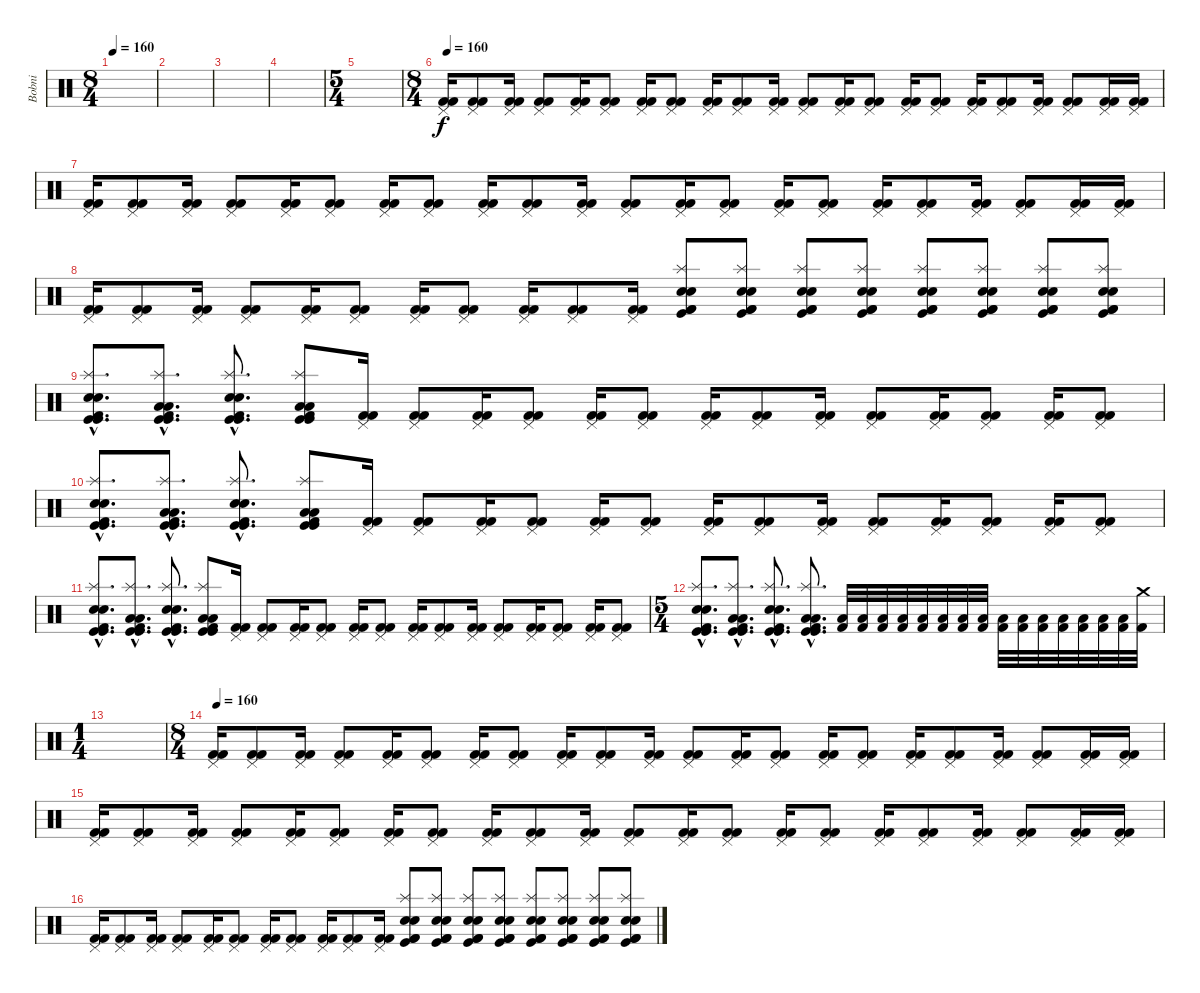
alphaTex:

\track ("Bobni" "Bobni") {instrument percussion}
\staff {score}
\articulation defaults
\ts (8 4)
\tempo 160
\clef neutral
\ks c
|
|
|
|
\ts (5 4)
|
\ts (8 4)
\tempo 160
("Pedal Hi-Hat (hit)" "Kick (hit) 2" "Kick (hit) 2").16 ("Pedal Hi-Hat (hit)" "Kick (hit) 2" "Kick (hit) 2").8 ("Pedal Hi-Hat (hit)" "Kick (hit) 2" "Kick (hit) 2").16 ("Pedal Hi-Hat (hit)" "Kick (hit) 2" "Kick (hit) 2").8 ("Pedal Hi-Hat (hit)" "Kick (hit) 2" "Kick (hit) 2").16 ("Pedal Hi-Hat (hit)" "Kick (hit) 2" "Kick (hit) 2").8 ("Pedal Hi-Hat (hit)" "Kick (hit) 2" "Kick (hit) 2").16 ("Pedal Hi-Hat (hit)" "Kick (hit) 2" "Kick (hit) 2").8 ("Pedal Hi-Hat (hit)" "Kick (hit) 2" "Kick (hit) 2").16 ("Pedal Hi-Hat (hit)" "Kick (hit) 2" "Kick (hit) 2").8 ("Pedal Hi-Hat (hit)" "Kick (hit) 2" "Kick (hit) 2").16 ("Pedal Hi-Hat (hit)" "Kick (hit) 2" "Kick (hit) 2").8 ("Pedal Hi-Hat (hit)" "Kick (hit) 2" "Kick (hit) 2").16 ("Pedal Hi-Hat (hit)" "Kick (hit) 2" "Kick (hit) 2").8 ("Pedal Hi-Hat (hit)" "Kick (hit) 2" "Kick (hit) 2").16 ("Pedal Hi-Hat (hit)" "Kick (hit) 2" "Kick (hit) 2").8 ("Pedal Hi-Hat (hit)" "Kick (hit) 2" "Kick (hit) 2").16 ("Pedal Hi-Hat (hit)" "Kick (hit) 2" "Kick (hit) 2").8 ("Pedal Hi-Hat (hit)" "Kick (hit) 2" "Kick (hit) 2").16 ("Pedal Hi-Hat (hit)" "Kick (hit) 2" "Kick (hit) 2").8 ("Pedal Hi-Hat (hit)" "Kick (hit) 2" "Kick (hit) 2").16 ("Pedal Hi-Hat (hit)" "Kick (hit) 2" "Kick (hit) 2").16 |
("Pedal Hi-Hat (hit)" "Kick (hit) 2" "Kick (hit) 2").16 ("Pedal Hi-Hat (hit)" "Kick (hit) 2" "Kick (hit) 2").8 ("Pedal Hi-Hat (hit)" "Kick (hit) 2" "Kick (hit) 2").16 ("Pedal Hi-Hat (hit)" "Kick (hit) 2" "Kick (hit) 2").8 ("Pedal Hi-Hat (hit)" "Kick (hit) 2" "Kick (hit) 2").16 ("Pedal Hi-Hat (hit)" "Kick (hit) 2" "Kick (hit) 2").8 ("Pedal Hi-Hat (hit)" "Kick (hit) 2" "Kick (hit) 2").16 ("Pedal Hi-Hat (hit)" "Kick (hit) 2" "Kick (hit) 2").8 ("Pedal Hi-Hat (hit)" "Kick (hit) 2" "Kick (hit) 2").16 ("Pedal Hi-Hat (hit)" "Kick (hit) 2" "Kick (hit) 2").8 ("Pedal Hi-Hat (hit)" "Kick (hit) 2" "Kick (hit) 2").16 ("Pedal Hi-Hat (hit)" "Kick (hit) 2" "Kick (hit) 2").8 ("Pedal Hi-Hat (hit)" "Kick (hit) 2" "Kick (hit) 2").16 ("Pedal Hi-Hat (hit)" "Kick (hit) 2" "Kick (hit) 2").8 ("Pedal Hi-Hat (hit)" "Kick (hit) 2" "Kick (hit) 2").16 ("Pedal Hi-Hat (hit)" "Kick (hit) 2" "Kick (hit) 2").8 ("Pedal Hi-Hat (hit)" "Kick (hit) 2" "Kick (hit) 2").16 ("Pedal Hi-Hat (hit)" "Kick (hit) 2" "Kick (hit) 2").8 ("Pedal Hi-Hat (hit)" "Kick (hit) 2" "Kick (hit) 2").16 ("Pedal Hi-Hat (hit)" "Kick (hit) 2" "Kick (hit) 2").8 ("Pedal Hi-Hat (hit)" "Kick (hit) 2" "Kick (hit) 2").16 ("Pedal Hi-Hat (hit)" "Kick (hit) 2" "Kick (hit) 2").16 |
("Pedal Hi-Hat (hit)" "Kick (hit) 2" "Kick (hit) 2").16 ("Pedal Hi-Hat (hit)" "Kick (hit) 2" "Kick (hit) 2").8 ("Pedal Hi-Hat (hit)" "Kick (hit) 2" "Kick (hit) 2").16 ("Pedal Hi-Hat (hit)" "Kick (hit) 2" "Kick (hit) 2").8 ("Pedal Hi-Hat (hit)" "Kick (hit) 2" "Kick (hit) 2").16 ("Pedal Hi-Hat (hit)" "Kick (hit) 2" "Kick (hit) 2").8 ("Pedal Hi-Hat (hit)" "Kick (hit) 2" "Kick (hit) 2").16 ("Pedal Hi-Hat (hit)" "Kick (hit) 2" "Kick (hit) 2").8 ("Pedal Hi-Hat (hit)" "Kick (hit) 2" "Kick (hit) 2").16 ("Pedal Hi-Hat (hit)" "Kick (hit) 2" "Kick (hit) 2").8 ("Pedal Hi-Hat (hit)" "Kick (hit) 2" "Kick (hit) 2").16 ("Snare (hit) 2" "Snare (hit) 2" "Splash (hit)" "Kick (hit)" "Kick (hit) 2" "Kick (hit) 2").8 ("Electric Snare (hit)" "Electric Snare (hit)" "Splash (hit)" "Kick (hit)" "Kick (hit) 2" "Kick (hit) 2").8 ("Snare (hit) 2" "Snare (hit) 2" "Splash (hit)" "Kick (hit)" "Kick (hit) 2" "Kick (hit) 2").8 ("Electric Snare (hit)" "Electric Snare (hit)" "Splash (hit)" "Kick (hit)" "Kick (hit) 2" "Kick (hit) 2").8 ("Snare (hit) 2" "Snare (hit) 2" "Splash (hit)" "Kick (hit)" "Kick (hit) 2" "Kick (hit) 2").8 ("Electric Snare (hit)" "Electric Snare (hit)" "Splash (hit)" "Kick (hit)" "Kick (hit) 2" "Kick (hit) 2").8 ("Snare (hit) 2" "Snare (hit) 2" "Splash (hit)" "Kick (hit)" "Kick (hit) 2" "Kick (hit) 2").8 ("Electric Snare (hit)" "Electric Snare (hit)" "Splash (hit)" "Kick (hit)" "Kick (hit) 2" "Kick (hit) 2").8 |
("Snare (hit) 2"{hac} "Snare (hit) 2"{hac} "Splash (hit)"{hac} "Kick (hit) 2"{hac} "Kick (hit)"{hac} "Kick (hit)"{hac}).8{d} ("Low Floor Tom (hit)"{hac} "Low Floor Tom (hit)"{hac} "Splash (hit)"{hac} "Kick (hit) 2"{hac} "Kick (hit)"{hac} "Kick (hit)"{hac}).8{d} ("Snare (hit) 2"{hac} "Snare (hit) 2"{hac} "Splash (hit)"{hac} "Kick (hit) 2"{hac} "Kick (hit)"{hac} "Kick (hit)"{hac}).8{d} ("Low Floor Tom (hit)" "Low Floor Tom (hit)" "Splash (hit)" "Kick (hit) 2" "Kick (hit)" "Kick (hit)").8 ("Pedal Hi-Hat (hit)" "Kick (hit) 2" "Kick (hit) 2").16 ("Pedal Hi-Hat (hit)" "Kick (hit) 2" "Kick (hit) 2").8 ("Pedal Hi-Hat (hit)" "Kick (hit) 2" "Kick (hit) 2").16 ("Pedal Hi-Hat (hit)" "Kick (hit) 2" "Kick (hit) 2").8 ("Pedal Hi-Hat (hit)" "Kick (hit) 2" "Kick (hit) 2").16 ("Pedal Hi-Hat (hit)" "Kick (hit) 2" "Kick (hit) 2").8 ("Pedal Hi-Hat (hit)" "Kick (hit) 2" "Kick (hit) 2").16 ("Pedal Hi-Hat (hit)" "Kick (hit) 2" "Kick (hit) 2").8 ("Pedal Hi-Hat (hit)" "Kick (hit) 2" "Kick (hit) 2").16 ("Pedal Hi-Hat (hit)" "Kick (hit) 2" "Kick (hit) 2").8 ("Pedal Hi-Hat (hit)" "Kick (hit) 2" "Kick (hit) 2").16 ("Pedal Hi-Hat (hit)" "Kick (hit) 2" "Kick (hit) 2").8 ("Pedal Hi-Hat (hit)" "Kick (hit) 2" "Kick (hit) 2").16 ("Pedal Hi-Hat (hit)" "Kick (hit) 2" "Kick (hit) 2").8 |
("Snare (hit) 2"{hac} "Snare (hit) 2"{hac} "Splash (hit)"{hac} "Kick (hit) 2"{hac} "Kick (hit)"{hac} "Kick (hit)"{hac}).8{d} ("Low Floor Tom (hit)"{hac} "Low Floor Tom (hit)"{hac} "Splash (hit)"{hac} "Kick (hit) 2"{hac} "Kick (hit)"{hac} "Kick (hit)"{hac}).8{d} ("Snare (hit) 2"{hac} "Snare (hit) 2"{hac} "Splash (hit)"{hac} "Kick (hit) 2"{hac} "Kick (hit)"{hac} "Kick (hit)"{hac}).8{d} ("Low Floor Tom (hit)" "Low Floor Tom (hit)" "Splash (hit)" "Kick (hit) 2" "Kick (hit)" "Kick (hit)").8 ("Pedal Hi-Hat (hit)" "Kick (hit) 2" "Kick (hit) 2").16 ("Pedal Hi-Hat (hit)" "Kick (hit) 2" "Kick (hit) 2").8 ("Pedal Hi-Hat (hit)" "Kick (hit) 2" "Kick (hit) 2").16 ("Pedal Hi-Hat (hit)" "Kick (hit) 2" "Kick (hit) 2").8 ("Pedal Hi-Hat (hit)" "Kick (hit) 2" "Kick (hit) 2").16 ("Pedal Hi-Hat (hit)" "Kick (hit) 2" "Kick (hit) 2").8 ("Pedal Hi-Hat (hit)" "Kick (hit) 2" "Kick (hit) 2").16 ("Pedal Hi-Hat (hit)" "Kick (hit) 2" "Kick (hit) 2").8 ("Pedal Hi-Hat (hit)" "Kick (hit) 2" "Kick (hit) 2").16 ("Pedal Hi-Hat (hit)" "Kick (hit) 2" "Kick (hit) 2").8 ("Pedal Hi-Hat (hit)" "Kick (hit) 2" "Kick (hit) 2").16 ("Pedal Hi-Hat (hit)" "Kick (hit) 2" "Kick (hit) 2").8 ("Pedal Hi-Hat (hit)" "Kick (hit) 2" "Kick (hit) 2").16 ("Pedal Hi-Hat (hit)" "Kick (hit) 2" "Kick (hit) 2").8 |
("Snare (hit) 2"{hac} "Snare (hit) 2"{hac} "Splash (hit)"{hac} "Kick (hit) 2"{hac} "Kick (hit)"{hac} "Kick (hit)"{hac}).8{d} ("Low Floor Tom (hit)"{hac} "Low Floor Tom (hit)"{hac} "Splash (hit)"{hac} "Kick (hit) 2"{hac} "Kick (hit)"{hac} "Kick (hit)"{hac}).8{d} ("Snare (hit) 2"{hac} "Snare (hit) 2"{hac} "Splash (hit)"{hac} "Kick (hit) 2"{hac} "Kick (hit)"{hac} "Kick (hit)"{hac}).8{d} ("Low Floor Tom (hit)" "Low Floor Tom (hit)" "Splash (hit)" "Kick (hit) 2" "Kick (hit)" "Kick (hit)").8 ("Pedal Hi-Hat (hit)" "Kick (hit) 2" "Kick (hit) 2").16 ("Pedal Hi-Hat (hit)" "Kick (hit) 2" "Kick (hit) 2").8 ("Pedal Hi-Hat (hit)" "Kick (hit) 2" "Kick (hit) 2").16 ("Pedal Hi-Hat (hit)" "Kick (hit) 2" "Kick (hit) 2").8 ("Pedal Hi-Hat (hit)" "Kick (hit) 2" "Kick (hit) 2").16 ("Pedal Hi-Hat (hit)" "Kick (hit) 2" "Kick (hit) 2").8 ("Pedal Hi-Hat (hit)" "Kick (hit) 2" "Kick (hit) 2").16 ("Pedal Hi-Hat (hit)" "Kick (hit) 2" "Kick (hit) 2").8 ("Pedal Hi-Hat (hit)" "Kick (hit) 2" "Kick (hit) 2").16 ("Pedal Hi-Hat (hit)" "Kick (hit) 2" "Kick (hit) 2").8 ("Pedal Hi-Hat (hit)" "Kick (hit) 2" "Kick (hit) 2").16 ("Pedal Hi-Hat (hit)" "Kick (hit) 2" "Kick (hit) 2").8 ("Pedal Hi-Hat (hit)" "Kick (hit) 2" "Kick (hit) 2").16 ("Pedal Hi-Hat (hit)" "Kick (hit) 2" "Kick (hit) 2").8 |
\ts (5 4)
("Snare (hit) 2"{hac} "Snare (hit) 2"{hac} "Splash (hit)"{hac} "Kick (hit) 2"{hac} "Kick (hit)"{hac} "Kick (hit)"{hac}).8{d} ("Low Floor Tom (hit)"{hac} "Low Floor Tom (hit)"{hac} "Splash (hit)"{hac} "Kick (hit) 2"{hac} "Kick (hit)"{hac} "Kick (hit)"{hac}).8{d} ("Snare (hit) 2"{hac} "Snare (hit) 2"{hac} "Splash (hit)"{hac} "Kick (hit) 2"{hac} "Kick (hit)"{hac} "Kick (hit)"{hac}).8{d} ("Low Floor Tom (hit)"{hac} "Low Floor Tom (hit)"{hac} "Splash (hit)"{hac} "Kick (hit) 2"{hac} "Kick (hit)"{hac} "Kick (hit)"{hac}).8{d} ("Low Floor Tom (hit)" "Kick (hit) 2").32 ("Low Floor Tom (hit)" "Kick (hit) 2").32 ("Low Floor Tom (hit)" "Kick (hit) 2").32 ("Low Floor Tom (hit)" "Kick (hit) 2").32 ("Low Floor Tom (hit)" "Kick (hit) 2").32 ("Low Floor Tom (hit)" "Kick (hit) 2").32 ("Low Floor Tom (hit)" "Kick (hit) 2").32 ("Low Floor Tom (hit)" "Kick (hit) 2").32 ("Low Floor Tom (hit)" "Kick (hit) 2").32 ("Low Floor Tom (hit)" "Kick (hit) 2").32 ("Low Floor Tom (hit)" "Kick (hit) 2").32 ("Low Floor Tom (hit)" "Kick (hit) 2").32 ("Low Floor Tom (hit)" "Kick (hit) 2").32 ("Low Floor Tom (hit)" "Kick (hit) 2").32 ("Low Floor Tom (hit)" "Kick (hit) 2").32 ("Crash medium (hit)" "Kick (hit) 2").32 |
\ts (1 4)
|
\ts (8 4)
\tempo 160
("Pedal Hi-Hat (hit)" "Kick (hit) 2" "Kick (hit) 2").16 ("Pedal Hi-Hat (hit)" "Kick (hit) 2" "Kick (hit) 2").8 ("Pedal Hi-Hat (hit)" "Kick (hit) 2" "Kick (hit) 2").16 ("Pedal Hi-Hat (hit)" "Kick (hit) 2" "Kick (hit) 2").8 ("Pedal Hi-Hat (hit)" "Kick (hit) 2" "Kick (hit) 2").16 ("Pedal Hi-Hat (hit)" "Kick (hit) 2" "Kick (hit) 2").8 ("Pedal Hi-Hat (hit)" "Kick (hit) 2" "Kick (hit) 2").16 ("Pedal Hi-Hat (hit)" "Kick (hit) 2" "Kick (hit) 2").8 ("Pedal Hi-Hat (hit)" "Kick (hit) 2" "Kick (hit) 2").16 ("Pedal Hi-Hat (hit)" "Kick (hit) 2" "Kick (hit) 2").8 ("Pedal Hi-Hat (hit)" "Kick (hit) 2" "Kick (hit) 2").16 ("Pedal Hi-Hat (hit)" "Kick (hit) 2" "Kick (hit) 2").8 ("Pedal Hi-Hat (hit)" "Kick (hit) 2" "Kick (hit) 2").16 ("Pedal Hi-Hat (hit)" "Kick (hit) 2" "Kick (hit) 2").8 ("Pedal Hi-Hat (hit)" "Kick (hit) 2" "Kick (hit) 2").16 ("Pedal Hi-Hat (hit)" "Kick (hit) 2" "Kick (hit) 2").8 ("Pedal Hi-Hat (hit)" "Kick (hit) 2" "Kick (hit) 2").16 ("Pedal Hi-Hat (hit)" "Kick (hit) 2" "Kick (hit) 2").8 ("Pedal Hi-Hat (hit)" "Kick (hit) 2" "Kick (hit) 2").16 ("Pedal Hi-Hat (hit)" "Kick (hit) 2" "Kick (hit) 2").8 ("Pedal Hi-Hat (hit)" "Kick (hit) 2" "Kick (hit) 2").16 ("Pedal Hi-Hat (hit)" "Kick (hit) 2" "Kick (hit) 2").16 |
("Pedal Hi-Hat (hit)" "Kick (hit) 2" "Kick (hit) 2").16 ("Pedal Hi-Hat (hit)" "Kick (hit) 2" "Kick (hit) 2").8 ("Pedal Hi-Hat (hit)" "Kick (hit) 2" "Kick (hit) 2").16 ("Pedal Hi-Hat (hit)" "Kick (hit) 2" "Kick (hit) 2").8 ("Pedal Hi-Hat (hit)" "Kick (hit) 2" "Kick (hit) 2").16 ("Pedal Hi-Hat (hit)" "Kick (hit) 2" "Kick (hit) 2").8 ("Pedal Hi-Hat (hit)" "Kick (hit) 2" "Kick (hit) 2").16 ("Pedal Hi-Hat (hit)" "Kick (hit) 2" "Kick (hit) 2").8 ("Pedal Hi-Hat (hit)" "Kick (hit) 2" "Kick (hit) 2").16 ("Pedal Hi-Hat (hit)" "Kick (hit) 2" "Kick (hit) 2").8 ("Pedal Hi-Hat (hit)" "Kick (hit) 2" "Kick (hit) 2").16 ("Pedal Hi-Hat (hit)" "Kick (hit) 2" "Kick (hit) 2").8 ("Pedal Hi-Hat (hit)" "Kick (hit) 2" "Kick (hit) 2").16 ("Pedal Hi-Hat (hit)" "Kick (hit) 2" "Kick (hit) 2").8 ("Pedal Hi-Hat (hit)" "Kick (hit) 2" "Kick (hit) 2").16 ("Pedal Hi-Hat (hit)" "Kick (hit) 2" "Kick (hit) 2").8 ("Pedal Hi-Hat (hit)" "Kick (hit) 2" "Kick (hit) 2").16 ("Pedal Hi-Hat (hit)" "Kick (hit) 2" "Kick (hit) 2").8 ("Pedal Hi-Hat (hit)" "Kick (hit) 2" "Kick (hit) 2").16 ("Pedal Hi-Hat (hit)" "Kick (hit) 2" "Kick (hit) 2").8 ("Pedal Hi-Hat (hit)" "Kick (hit) 2" "Kick (hit) 2").16 ("Pedal Hi-Hat (hit)" "Kick (hit) 2" "Kick (hit) 2").16 |
("Pedal Hi-Hat (hit)" "Kick (hit) 2" "Kick (hit) 2").16 ("Pedal Hi-Hat (hit)" "Kick (hit) 2" "Kick (hit) 2").8 ("Pedal Hi-Hat (hit)" "Kick (hit) 2" "Kick (hit) 2").16 ("Pedal Hi-Hat (hit)" "Kick (hit) 2" "Kick (hit) 2").8 ("Pedal Hi-Hat (hit)" "Kick (hit) 2" "Kick (hit) 2").16 ("Pedal Hi-Hat (hit)" "Kick (hit) 2" "Kick (hit) 2").8 ("Pedal Hi-Hat (hit)" "Kick (hit) 2" "Kick (hit) 2").16 ("Pedal Hi-Hat (hit)" "Kick (hit) 2" "Kick (hit) 2").8 ("Pedal Hi-Hat (hit)" "Kick (hit) 2" "Kick (hit) 2").16 ("Pedal Hi-Hat (hit)" "Kick (hit) 2" "Kick (hit) 2").8 ("Pedal Hi-Hat (hit)" "Kick (hit) 2" "Kick (hit) 2").16 ("Snare (hit) 2" "Snare (hit) 2" "Splash (hit)" "Kick (hit)" "Kick (hit) 2" "Kick (hit) 2").8 ("Electric Snare (hit)" "Electric Snare (hit)" "Splash (hit)" "Kick (hit)" "Kick (hit) 2" "Kick (hit) 2").8 ("Snare (hit) 2" "Snare (hit) 2" "Splash (hit)" "Kick (hit)" "Kick (hit) 2" "Kick (hit) 2").8 ("Electric Snare (hit)" "Electric Snare (hit)" "Splash (hit)" "Kick (hit)" "Kick (hit) 2" "Kick (hit) 2").8 ("Snare (hit) 2" "Snare (hit) 2" "Splash (hit)" "Kick (hit)" "Kick (hit) 2" "Kick (hit) 2").8 ("Electric Snare (hit)" "Electric Snare (hit)" "Splash (hit)" "Kick (hit)" "Kick (hit) 2" "Kick (hit) 2").8 ("Snare (hit) 2" "Snare (hit) 2" "Splash (hit)" "Kick (hit)" "Kick (hit) 2" "Kick (hit) 2").8 ("Electric Snare (hit)" "Electric Snare (hit)" "Splash (hit)" "Kick (hit)" "Kick (hit) 2" "Kick (hit) 2").8
